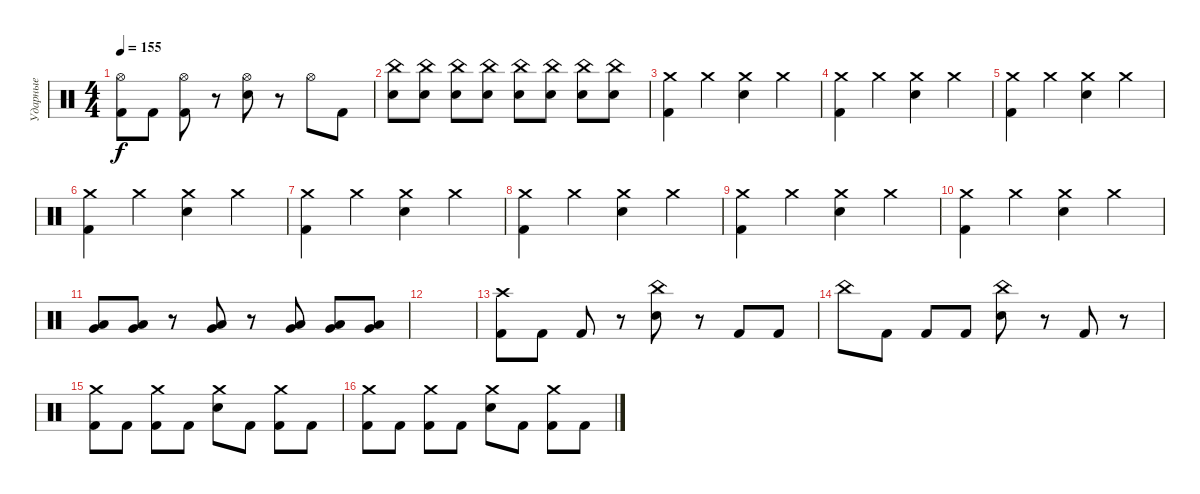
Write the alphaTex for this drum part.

\track ("Ударные" "Ударные") {instrument percussion}
\staff {score}
\articulation defaults
\ts (4 4)
\tempo 155
\clef neutral
\ks c
("Hi-Hat (open)" "Kick (hit) 2").8{dy f} "Kick (hit) 2".8 ("Hi-Hat (open)" "Kick (hit) 2").8 r.8 ("Hi-Hat (open)" "Electric Snare (hit)").8 r.8 "Hi-Hat (open)".8 "Kick (hit) 2".8 |
("China (hit)" "Electric Snare (hit)").8 ("China (hit)" "Electric Snare (hit)").8 ("China (hit)" "Electric Snare (hit)").8 ("China (hit)" "Electric Snare (hit)").8 ("China (hit)" "Electric Snare (hit)").8 ("China (hit)" "Electric Snare (hit)").8 ("China (hit)" "Electric Snare (hit)").8 ("China (hit)" "Electric Snare (hit)").8 |
("Crash medium (hit)" "Kick (hit) 2").4 "Crash medium (hit)".4 ("Crash medium (hit)" "Electric Snare (hit)").4 "Crash medium (hit)".4 |
("Crash medium (hit)" "Kick (hit) 2").4 "Crash medium (hit)".4 ("Crash medium (hit)" "Electric Snare (hit)").4 "Crash medium (hit)".4 |
("Crash medium (hit)" "Kick (hit) 2").4 "Crash medium (hit)".4 ("Crash medium (hit)" "Electric Snare (hit)").4 "Crash medium (hit)".4 |
("Crash medium (hit)" "Kick (hit) 2").4 "Crash medium (hit)".4 ("Crash medium (hit)" "Electric Snare (hit)").4 "Crash medium (hit)".4 |
("Crash medium (hit)" "Kick (hit) 2").4 "Crash medium (hit)".4 ("Crash medium (hit)" "Electric Snare (hit)").4 "Crash medium (hit)".4 |
("Crash medium (hit)" "Kick (hit) 2").4 "Crash medium (hit)".4 ("Crash medium (hit)" "Electric Snare (hit)").4 "Crash medium (hit)".4 |
("Crash medium (hit)" "Kick (hit) 2").4 "Crash medium (hit)".4 ("Crash medium (hit)" "Electric Snare (hit)").4 "Crash medium (hit)".4 |
("Crash medium (hit)" "Kick (hit) 2").4 "Crash medium (hit)".4 ("Crash medium (hit)" "Electric Snare (hit)").4 "Crash medium (hit)".4 |
("Low Tom (hit)" "Very Low Tom (hit)").8 ("Low Tom (hit)" "Very Low Tom (hit)").8 r.8 ("Low Tom (hit)" "Very Low Tom (hit)").8 r.8 ("Low Tom (hit)" "Very Low Tom (hit)").8 ("Low Tom (hit)" "Very Low Tom (hit)").8 ("Low Tom (hit)" "Very Low Tom (hit)").8 |
|
("Crash high (hit)" "Kick (hit) 2").8 "Kick (hit) 2".8 "Kick (hit) 2".8 r.8 ("China (hit)" "Electric Snare (hit)").8 r.8 "Kick (hit) 2".8 "Kick (hit) 2".8 |
"China (hit)".8 "Kick (hit) 2".8 "Kick (hit) 2".8 "Kick (hit) 2".8 ("China (hit)" "Electric Snare (hit)").8 r.8 "Kick (hit) 2".8 r.8 |
("Crash medium (hit)" "Kick (hit) 2").8 "Kick (hit) 2".8 ("Crash medium (hit)" "Kick (hit) 2").8 "Kick (hit) 2".8 ("Crash medium (hit)" "Electric Snare (hit)").8 "Kick (hit) 2".8 ("Crash medium (hit)" "Kick (hit) 2").8 "Kick (hit) 2".8 |
("Crash medium (hit)" "Kick (hit) 2").8 "Kick (hit) 2".8 ("Crash medium (hit)" "Kick (hit) 2").8 "Kick (hit) 2".8 ("Crash medium (hit)" "Electric Snare (hit)").8 "Kick (hit) 2".8 ("Crash medium (hit)" "Kick (hit) 2").8 "Kick (hit) 2".8
